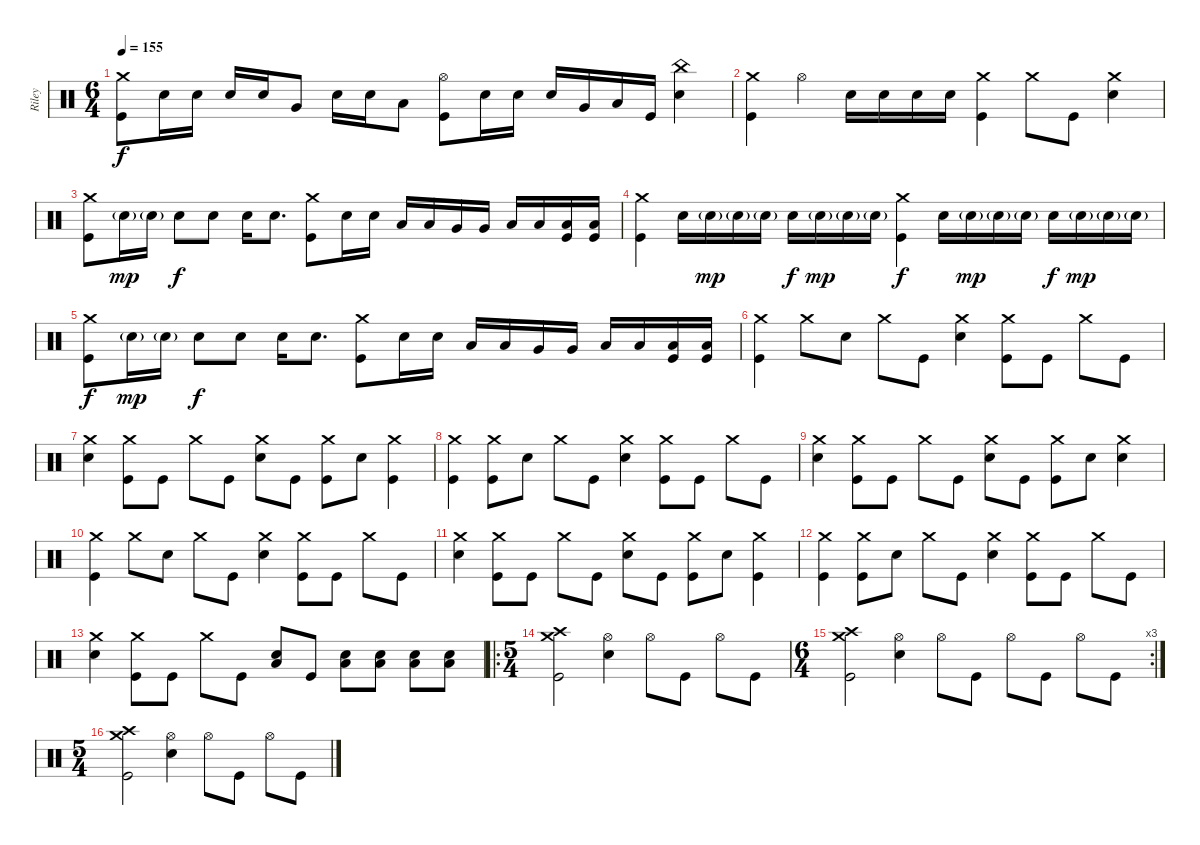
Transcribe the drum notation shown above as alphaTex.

\track ("Riley" "Riley") {instrument percussion bank 177}
\staff {score}
\articulation defaults
\ts (6 4)
\tempo 155
\clef neutral
\ks c
("Crash medium (hit)" "Kick (hit)").8{dy f} "Snare (hit) 2".16 "Snare (hit) 2".16 "Snare (hit) 2".16 "Snare (hit) 2".16 "Very Low Tom (hit)".8 "Snare (hit) 2".16 "Snare (hit) 2".16 "Low Floor Tom (hit)".8 ("Hi-Hat (open)" "Kick (hit)").8 "Snare (hit) 2".16 "Snare (hit) 2".16 "Snare (hit) 2".16 "Very Low Tom (hit)".16 "Low Floor Tom (hit)".16 "Kick (hit)".16 ("China (hit)" "Snare (hit) 2").4 |
("Crash medium (hit)" "Kick (hit)").4 "Hi-Hat (open)".4 "Snare (hit) 2".16 "Snare (hit) 2".16 "Snare (hit) 2".16 "Snare (hit) 2".16 ("Crash medium (hit)" "Kick (hit)").4 "Crash medium (hit)".8 "Kick (hit)".8 ("Crash medium (hit)" "Snare (hit) 2").4 |
("Crash medium (hit)" "Kick (hit)").8 "Snare (hit) 2"{g}.16{dy mp} "Snare (hit) 2"{g}.16 "Snare (hit) 2".8{dy f} "Snare (hit) 2".8 "Snare (hit) 2".16 "Snare (hit) 2".8{d} ("Crash medium (hit)" "Kick (hit)").8 "Snare (hit) 2".16 "Snare (hit) 2".16 "Low Tom (hit)".16 "Low Tom (hit)".16 "Very Low Tom (hit)".16 "Very Low Tom (hit)".16 "Low Floor Tom (hit)".16 "Low Floor Tom (hit)".16 ("Low Floor Tom (hit)" "Kick (hit)").16 ("Low Floor Tom (hit)" "Kick (hit)").16 |
("Crash medium (hit)" "Kick (hit)").4 "Snare (hit) 2".16 "Snare (hit) 2"{g}.16{dy mp} "Snare (hit) 2"{g}.16 "Snare (hit) 2"{g}.16 "Snare (hit) 2".16{dy f} "Snare (hit) 2"{g}.16{dy mp} "Snare (hit) 2"{g}.16 "Snare (hit) 2"{g}.16 ("Crash medium (hit)" "Kick (hit)").4{dy f} "Snare (hit) 2".16 "Snare (hit) 2"{g}.16{dy mp} "Snare (hit) 2"{g}.16 "Snare (hit) 2"{g}.16 "Snare (hit) 2".16{dy f} "Snare (hit) 2"{g}.16{dy mp} "Snare (hit) 2"{g}.16 "Snare (hit) 2"{g}.16 |
("Crash medium (hit)" "Kick (hit)").8{dy f} "Snare (hit) 2"{g}.16{dy mp} "Snare (hit) 2"{g}.16 "Snare (hit) 2".8{dy f} "Snare (hit) 2".8 "Snare (hit) 2".16 "Snare (hit) 2".8{d} ("Crash medium (hit)" "Kick (hit)").8 "Snare (hit) 2".16 "Snare (hit) 2".16 "Low Tom (hit)".16 "Low Tom (hit)".16 "Very Low Tom (hit)".16 "Very Low Tom (hit)".16 "Low Floor Tom (hit)".16 "Low Floor Tom (hit)".16 ("Low Floor Tom (hit)" "Kick (hit)").16 ("Low Floor Tom (hit)" "Kick (hit)").16 |
("Crash medium (hit)" "Kick (hit)").4 "Crash medium (hit)".8 "Snare (hit) 2".8 "Crash medium (hit)".8 "Kick (hit)".8 ("Crash medium (hit)" "Snare (hit) 2").4 ("Crash medium (hit)" "Kick (hit)").8 "Kick (hit)".8 "Crash medium (hit)".8 "Kick (hit)".8 |
("Crash medium (hit)" "Snare (hit) 2").4 ("Crash medium (hit)" "Kick (hit)").8 "Kick (hit)".8 "Crash medium (hit)".8 "Kick (hit)".8 ("Crash medium (hit)" "Snare (hit) 2").8 "Kick (hit)".8 ("Crash medium (hit)" "Kick (hit)").8 "Snare (hit) 2".8 ("Crash medium (hit)" "Kick (hit)").4 |
("Crash medium (hit)" "Kick (hit)").4 ("Crash medium (hit)" "Kick (hit)").8 "Snare (hit) 2".8 "Crash medium (hit)".8 "Kick (hit)".8 ("Crash medium (hit)" "Snare (hit) 2").4 ("Crash medium (hit)" "Kick (hit)").8 "Kick (hit)".8 "Crash medium (hit)".8 "Kick (hit)".8 |
("Crash medium (hit)" "Snare (hit) 2").4 ("Crash medium (hit)" "Kick (hit)").8 "Kick (hit)".8 "Crash medium (hit)".8 "Kick (hit)".8 ("Crash medium (hit)" "Snare (hit) 2").8 "Kick (hit)".8 ("Crash medium (hit)" "Kick (hit)").8 "Snare (hit) 2".8 ("Crash medium (hit)" "Snare (hit) 2").4 |
("Crash medium (hit)" "Kick (hit)").4 "Crash medium (hit)".8 "Snare (hit) 2".8 "Crash medium (hit)".8 "Kick (hit)".8 ("Crash medium (hit)" "Snare (hit) 2").4 ("Crash medium (hit)" "Kick (hit)").8 "Kick (hit)".8 "Crash medium (hit)".8 "Kick (hit)".8 |
("Crash medium (hit)" "Snare (hit) 2").4 ("Crash medium (hit)" "Kick (hit)").8 "Kick (hit)".8 "Crash medium (hit)".8 "Kick (hit)".8 ("Crash medium (hit)" "Snare (hit) 2").8 "Kick (hit)".8 ("Crash medium (hit)" "Kick (hit)").8 "Snare (hit) 2".8 ("Crash medium (hit)" "Kick (hit)").4 |
("Crash medium (hit)" "Kick (hit)").4 ("Crash medium (hit)" "Kick (hit)").8 "Snare (hit) 2".8 "Crash medium (hit)".8 "Kick (hit)".8 ("Crash medium (hit)" "Snare (hit) 2").4 ("Crash medium (hit)" "Kick (hit)").8 "Kick (hit)".8 "Crash medium (hit)".8 "Kick (hit)".8 |
("Crash medium (hit)" "Snare (hit) 2").4 ("Crash medium (hit)" "Kick (hit)").8 "Kick (hit)".8 "Crash medium (hit)".8 "Kick (hit)".8 ("Snare (hit) 2" "Low Floor Tom (hit)").8 "Kick (hit)".8 ("Snare (hit) 2" "Low Floor Tom (hit)").8 ("Snare (hit) 2" "Low Floor Tom (hit)").8 ("Snare (hit) 2" "Low Floor Tom (hit)").8 ("Snare (hit) 2" "Low Floor Tom (hit)").8 |
\ro
\ts (5 4)
("Crash medium (hit)" "Crash high (hit)" "Kick (hit)").2 ("Hi-Hat (open)" "Snare (hit) 2").4 "Hi-Hat (open)".8 "Kick (hit)".8 "Hi-Hat (open)".8 "Kick (hit)".8 |
\rc 3
\ts (6 4)
("Crash medium (hit)" "Crash high (hit)" "Kick (hit)").2 ("Hi-Hat (open)" "Snare (hit) 2").4 "Hi-Hat (open)".8 "Kick (hit)".8 "Hi-Hat (open)".8 "Kick (hit)".8 "Hi-Hat (open)".8 "Kick (hit)".8 |
\ts (5 4)
("Crash medium (hit)" "Crash high (hit)" "Kick (hit)").2 ("Hi-Hat (open)" "Snare (hit) 2").4 "Hi-Hat (open)".8 "Kick (hit)".8 "Hi-Hat (open)".8 "Kick (hit)".8
